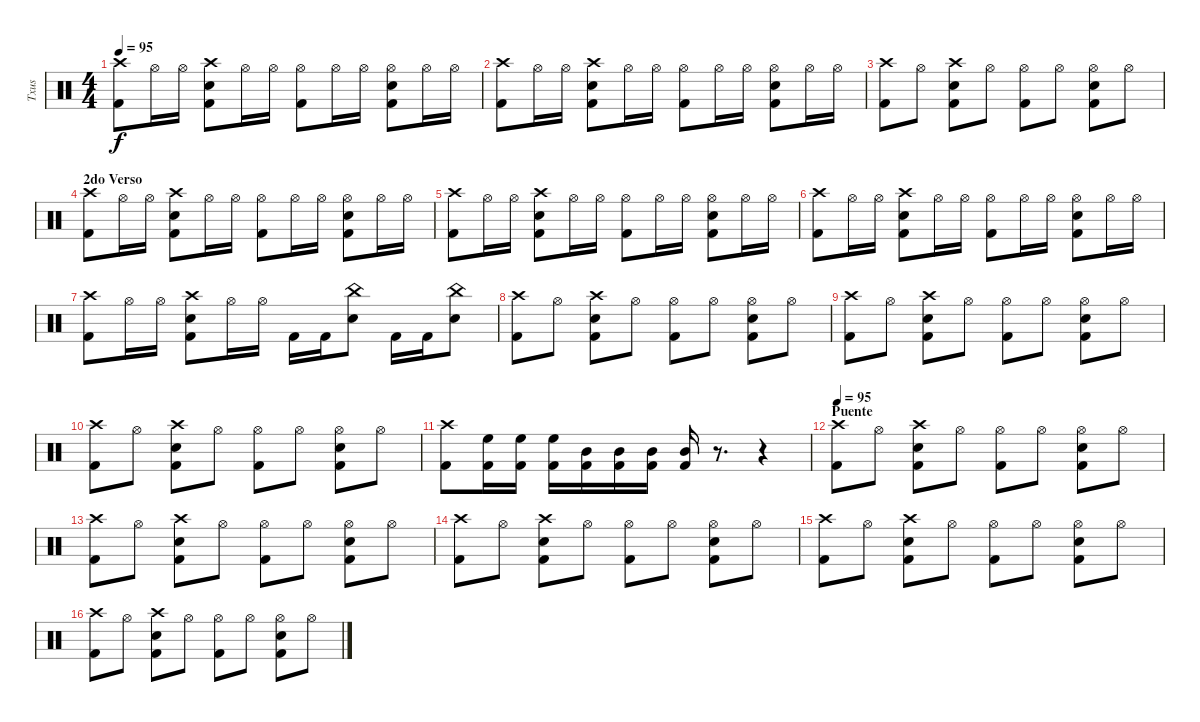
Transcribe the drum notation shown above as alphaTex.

\track ("Txus" "Txus") {instrument percussion}
\staff {score}
\articulation defaults
\ts (4 4)
\tempo 95
\clef neutral
\ks c
("Kick (hit) 2" "Crash high (hit)").8{dy f} "Hi-Hat (open)".16 "Hi-Hat (open)".16 ("Kick (hit) 2" "Crash high (hit)" "Snare (hit) 2").8 "Hi-Hat (open)".16 "Hi-Hat (open)".16 ("Kick (hit) 2" "Hi-Hat (open)").8 "Hi-Hat (open)".16 "Hi-Hat (open)".16 ("Kick (hit) 2" "Hi-Hat (open)" "Snare (hit) 2").8 "Hi-Hat (open)".16 "Hi-Hat (open)".16 |
("Kick (hit) 2" "Crash high (hit)").8 "Hi-Hat (open)".16 "Hi-Hat (open)".16 ("Kick (hit) 2" "Crash high (hit)" "Snare (hit) 2").8 "Hi-Hat (open)".16 "Hi-Hat (open)".16 ("Kick (hit) 2" "Hi-Hat (open)").8 "Hi-Hat (open)".16 "Hi-Hat (open)".16 ("Kick (hit) 2" "Hi-Hat (open)" "Snare (hit) 2").8 "Hi-Hat (open)".16 "Hi-Hat (open)".16 |
("Kick (hit) 2" "Crash high (hit)").8 "Hi-Hat (open)".8 ("Kick (hit) 2" "Crash high (hit)" "Snare (hit) 2").8 "Hi-Hat (open)".8 ("Kick (hit) 2" "Hi-Hat (open)").8 "Hi-Hat (open)".8 ("Kick (hit) 2" "Hi-Hat (open)" "Snare (hit) 2").8 "Hi-Hat (open)".8 |
\section ("" "2do Verso")
("Kick (hit) 2" "Crash high (hit)").8 "Hi-Hat (open)".16 "Hi-Hat (open)".16 ("Kick (hit) 2" "Crash high (hit)" "Snare (hit) 2").8 "Hi-Hat (open)".16 "Hi-Hat (open)".16 ("Kick (hit) 2" "Hi-Hat (open)").8 "Hi-Hat (open)".16 "Hi-Hat (open)".16 ("Kick (hit) 2" "Hi-Hat (open)" "Snare (hit) 2").8 "Hi-Hat (open)".16 "Hi-Hat (open)".16 |
("Kick (hit) 2" "Crash high (hit)").8 "Hi-Hat (open)".16 "Hi-Hat (open)".16 ("Kick (hit) 2" "Crash high (hit)" "Snare (hit) 2").8 "Hi-Hat (open)".16 "Hi-Hat (open)".16 ("Kick (hit) 2" "Hi-Hat (open)").8 "Hi-Hat (open)".16 "Hi-Hat (open)".16 ("Kick (hit) 2" "Hi-Hat (open)" "Snare (hit) 2").8 "Hi-Hat (open)".16 "Hi-Hat (open)".16 |
("Kick (hit) 2" "Crash high (hit)").8 "Hi-Hat (open)".16 "Hi-Hat (open)".16 ("Kick (hit) 2" "Crash high (hit)" "Snare (hit) 2").8 "Hi-Hat (open)".16 "Hi-Hat (open)".16 ("Kick (hit) 2" "Hi-Hat (open)").8 "Hi-Hat (open)".16 "Hi-Hat (open)".16 ("Kick (hit) 2" "Hi-Hat (open)" "Snare (hit) 2").8 "Hi-Hat (open)".16 "Hi-Hat (open)".16 |
("Kick (hit) 2" "Crash high (hit)").8 "Hi-Hat (open)".16 "Hi-Hat (open)".16 ("Kick (hit) 2" "Crash high (hit)" "Snare (hit) 2").8 "Hi-Hat (open)".16 "Hi-Hat (open)".16 "Kick (hit) 2".16 "Kick (hit) 2".16 ("China (hit)" "Snare (hit) 2").8 "Kick (hit) 2".16 "Kick (hit) 2".16 ("China (hit)" "Snare (hit) 2").8 |
("Kick (hit) 2" "Crash high (hit)").8 "Hi-Hat (open)".8 ("Kick (hit) 2" "Crash high (hit)" "Snare (hit) 2").8 "Hi-Hat (open)".8 ("Kick (hit) 2" "Hi-Hat (open)").8 "Hi-Hat (open)".8 ("Kick (hit) 2" "Hi-Hat (open)" "Snare (hit) 2").8 "Hi-Hat (open)".8 |
("Kick (hit) 2" "Crash high (hit)").8 "Hi-Hat (open)".8 ("Kick (hit) 2" "Crash high (hit)" "Snare (hit) 2").8 "Hi-Hat (open)".8 ("Kick (hit) 2" "Hi-Hat (open)").8 "Hi-Hat (open)".8 ("Kick (hit) 2" "Hi-Hat (open)" "Snare (hit) 2").8 "Hi-Hat (open)".8 |
("Kick (hit) 2" "Crash high (hit)").8 "Hi-Hat (open)".8 ("Kick (hit) 2" "Crash high (hit)" "Snare (hit) 2").8 "Hi-Hat (open)".8 ("Kick (hit) 2" "Hi-Hat (open)").8 "Hi-Hat (open)".8 ("Kick (hit) 2" "Hi-Hat (open)" "Snare (hit) 2").8 "Hi-Hat (open)".8 |
("Kick (hit) 2" "Crash high (hit)").8 ("High Floor Tom (hit)" "Kick (hit) 2").16 ("High Floor Tom (hit)" "Kick (hit) 2").16 ("High Floor Tom (hit)" "Kick (hit) 2").16 ("Mid Tom (hit)" "Kick (hit) 2").16 ("Mid Tom (hit)" "Kick (hit) 2").16 ("Mid Tom (hit)" "Kick (hit) 2").16 ("Mid Tom (hit)" "Kick (hit) 2").16 r.8{d} r.4 |
\section ("" "Puente")
\tempo 95
("Kick (hit) 2" "Crash high (hit)").8 "Hi-Hat (open)".8 ("Kick (hit) 2" "Crash high (hit)" "Snare (hit) 2").8 "Hi-Hat (open)".8 ("Kick (hit) 2" "Hi-Hat (open)").8 "Hi-Hat (open)".8 ("Kick (hit) 2" "Hi-Hat (open)" "Snare (hit) 2").8 "Hi-Hat (open)".8 |
("Kick (hit) 2" "Crash high (hit)").8 "Hi-Hat (open)".8 ("Kick (hit) 2" "Crash high (hit)" "Snare (hit) 2").8 "Hi-Hat (open)".8 ("Kick (hit) 2" "Hi-Hat (open)").8 "Hi-Hat (open)".8 ("Kick (hit) 2" "Hi-Hat (open)" "Snare (hit) 2").8 "Hi-Hat (open)".8 |
("Kick (hit) 2" "Crash high (hit)").8 "Hi-Hat (open)".8 ("Kick (hit) 2" "Crash high (hit)" "Snare (hit) 2").8 "Hi-Hat (open)".8 ("Kick (hit) 2" "Hi-Hat (open)").8 "Hi-Hat (open)".8 ("Kick (hit) 2" "Hi-Hat (open)" "Snare (hit) 2").8 "Hi-Hat (open)".8 |
("Kick (hit) 2" "Crash high (hit)").8 "Hi-Hat (open)".8 ("Kick (hit) 2" "Crash high (hit)" "Snare (hit) 2").8 "Hi-Hat (open)".8 ("Kick (hit) 2" "Hi-Hat (open)").8 "Hi-Hat (open)".8 ("Kick (hit) 2" "Hi-Hat (open)" "Snare (hit) 2").8 "Hi-Hat (open)".8 |
("Kick (hit) 2" "Crash high (hit)").8 "Hi-Hat (open)".8 ("Kick (hit) 2" "Crash high (hit)" "Snare (hit) 2").8 "Hi-Hat (open)".8 ("Kick (hit) 2" "Hi-Hat (open)").8 "Hi-Hat (open)".8 ("Kick (hit) 2" "Hi-Hat (open)" "Snare (hit) 2").8 "Hi-Hat (open)".8
